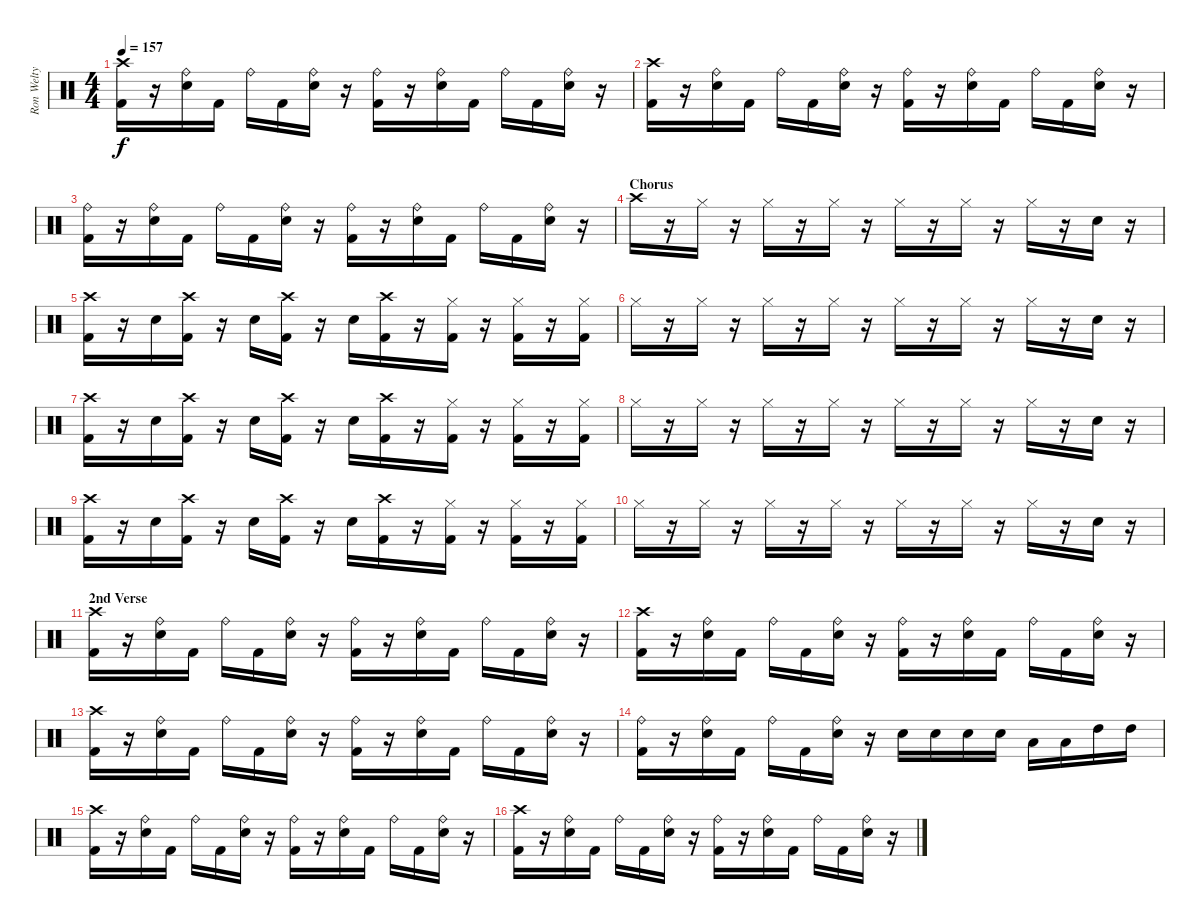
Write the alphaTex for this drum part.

\track ("Ron Welty - Drums" "Ron Welty ") {instrument percussion}
\staff {score}
\articulation defaults
\ts (4 4)
\tempo 157
\clef neutral
\ks c
("Crash high (hit)" "Kick (hit) 2").16{dy f} r.16 ("Ride (bell)" "Snare (hit) 2").16 "Kick (hit) 2".16 "Ride (bell)".16 "Kick (hit) 2".16 ("Ride (bell)" "Snare (hit) 2").16 r.16 ("Ride (bell)" "Kick (hit) 2").16 r.16 ("Ride (bell)" "Snare (hit) 2").16 "Kick (hit) 2".16 "Ride (bell)".16 "Kick (hit) 2".16 ("Ride (bell)" "Snare (hit) 2").16 r.16 |
("Crash high (hit)" "Kick (hit) 2").16 r.16 ("Ride (bell)" "Snare (hit) 2").16 "Kick (hit) 2".16 "Ride (bell)".16 "Kick (hit) 2".16 ("Ride (bell)" "Snare (hit) 2").16 r.16 ("Ride (bell)" "Kick (hit) 2").16 r.16 ("Ride (bell)" "Snare (hit) 2").16 "Kick (hit) 2".16 "Ride (bell)".16 "Kick (hit) 2".16 ("Ride (bell)" "Snare (hit) 2").16 r.16 |
("Ride (bell)" "Kick (hit) 2").16 r.16 ("Ride (bell)" "Snare (hit) 2").16 "Kick (hit) 2".16 "Ride (bell)".16 "Kick (hit) 2".16 ("Ride (bell)" "Snare (hit) 2").16 r.16 ("Ride (bell)" "Kick (hit) 2").16 r.16 ("Ride (bell)" "Snare (hit) 2").16 "Kick (hit) 2".16 "Ride (bell)".16 "Kick (hit) 2".16 ("Ride (bell)" "Snare (hit) 2").16 r.16 |
\section ("" "Chorus")
"Crash high (hit)".16 r.16 "Hi-Hat (closed)".16 r.16 "Hi-Hat (closed)".16 r.16 "Hi-Hat (closed)".16 r.16 "Hi-Hat (closed)".16 r.16 "Hi-Hat (closed)".16 r.16 "Hi-Hat (closed)".16 r.16 "Snare (hit) 2".16 r.16 |
("Crash high (hit)" "Kick (hit) 2").16 r.16 "Snare (hit) 2".16 ("Crash high (hit)" "Kick (hit) 2").16 r.16 "Snare (hit) 2".16 ("Crash high (hit)" "Kick (hit) 2").16 r.16 "Snare (hit) 2".16 ("Crash high (hit)" "Kick (hit) 2").16 r.16 ("Hi-Hat (closed)" "Kick (hit) 2").16 r.16 ("Hi-Hat (closed)" "Kick (hit) 2").16 r.16 ("Hi-Hat (closed)" "Kick (hit) 2").16 |
"Hi-Hat (closed)".16 r.16 "Hi-Hat (closed)".16 r.16 "Hi-Hat (closed)".16 r.16 "Hi-Hat (closed)".16 r.16 "Hi-Hat (closed)".16 r.16 "Hi-Hat (closed)".16 r.16 "Hi-Hat (closed)".16 r.16 "Snare (hit) 2".16 r.16 |
("Crash high (hit)" "Kick (hit) 2").16 r.16 "Snare (hit) 2".16 ("Crash high (hit)" "Kick (hit) 2").16 r.16 "Snare (hit) 2".16 ("Crash high (hit)" "Kick (hit) 2").16 r.16 "Snare (hit) 2".16 ("Crash high (hit)" "Kick (hit) 2").16 r.16 ("Hi-Hat (closed)" "Kick (hit) 2").16 r.16 ("Hi-Hat (closed)" "Kick (hit) 2").16 r.16 ("Hi-Hat (closed)" "Kick (hit) 2").16 |
"Hi-Hat (closed)".16 r.16 "Hi-Hat (closed)".16 r.16 "Hi-Hat (closed)".16 r.16 "Hi-Hat (closed)".16 r.16 "Hi-Hat (closed)".16 r.16 "Hi-Hat (closed)".16 r.16 "Hi-Hat (closed)".16 r.16 "Snare (hit) 2".16 r.16 |
("Crash high (hit)" "Kick (hit) 2").16 r.16 "Snare (hit) 2".16 ("Crash high (hit)" "Kick (hit) 2").16 r.16 "Snare (hit) 2".16 ("Crash high (hit)" "Kick (hit) 2").16 r.16 "Snare (hit) 2".16 ("Crash high (hit)" "Kick (hit) 2").16 r.16 ("Hi-Hat (closed)" "Kick (hit) 2").16 r.16 ("Hi-Hat (closed)" "Kick (hit) 2").16 r.16 ("Hi-Hat (closed)" "Kick (hit) 2").16 |
"Hi-Hat (closed)".16 r.16 "Hi-Hat (closed)".16 r.16 "Hi-Hat (closed)".16 r.16 "Hi-Hat (closed)".16 r.16 "Hi-Hat (closed)".16 r.16 "Hi-Hat (closed)".16 r.16 "Hi-Hat (closed)".16 r.16 "Snare (hit) 2".16 r.16 |
\section ("" "2nd Verse")
("Crash high (hit)" "Kick (hit) 2").16 r.16 ("Ride (bell)" "Snare (hit) 2").16 "Kick (hit) 2".16 "Ride (bell)".16 "Kick (hit) 2".16 ("Ride (bell)" "Snare (hit) 2").16 r.16 ("Ride (bell)" "Kick (hit) 2").16 r.16 ("Ride (bell)" "Snare (hit) 2").16 "Kick (hit) 2".16 "Ride (bell)".16 "Kick (hit) 2".16 ("Ride (bell)" "Snare (hit) 2").16 r.16 |
("Crash high (hit)" "Kick (hit) 2").16 r.16 ("Ride (bell)" "Snare (hit) 2").16 "Kick (hit) 2".16 "Ride (bell)".16 "Kick (hit) 2".16 ("Ride (bell)" "Snare (hit) 2").16 r.16 ("Ride (bell)" "Kick (hit) 2").16 r.16 ("Ride (bell)" "Snare (hit) 2").16 "Kick (hit) 2".16 "Ride (bell)".16 "Kick (hit) 2".16 ("Ride (bell)" "Snare (hit) 2").16 r.16 |
("Crash high (hit)" "Kick (hit) 2").16 r.16 ("Ride (bell)" "Snare (hit) 2").16 "Kick (hit) 2".16 "Ride (bell)".16 "Kick (hit) 2".16 ("Ride (bell)" "Snare (hit) 2").16 r.16 ("Ride (bell)" "Kick (hit) 2").16 r.16 ("Ride (bell)" "Snare (hit) 2").16 "Kick (hit) 2".16 "Ride (bell)".16 "Kick (hit) 2".16 ("Ride (bell)" "Snare (hit) 2").16 r.16 |
("Ride (bell)" "Kick (hit) 2").16 r.16 ("Ride (bell)" "Snare (hit) 2").16 "Kick (hit) 2".16 "Ride (bell)".16 "Kick (hit) 2".16 ("Ride (bell)" "Snare (hit) 2").16 r.16 "Snare (hit) 2".16 "Snare (hit) 2".16 "Snare (hit) 2".16 "Snare (hit) 2".16 "Low Tom (hit)".16 "Low Tom (hit)".16 "High Tom (hit)".16 "High Tom (hit)".16 |
("Crash high (hit)" "Kick (hit) 2").16 r.16 ("Ride (bell)" "Snare (hit) 2").16 "Kick (hit) 2".16 "Ride (bell)".16 "Kick (hit) 2".16 ("Ride (bell)" "Snare (hit) 2").16 r.16 ("Ride (bell)" "Kick (hit) 2").16 r.16 ("Ride (bell)" "Snare (hit) 2").16 "Kick (hit) 2".16 "Ride (bell)".16 "Kick (hit) 2".16 ("Ride (bell)" "Snare (hit) 2").16 r.16 |
("Crash high (hit)" "Kick (hit) 2").16 r.16 ("Ride (bell)" "Snare (hit) 2").16 "Kick (hit) 2".16 "Ride (bell)".16 "Kick (hit) 2".16 ("Ride (bell)" "Snare (hit) 2").16 r.16 ("Ride (bell)" "Kick (hit) 2").16 r.16 ("Ride (bell)" "Snare (hit) 2").16 "Kick (hit) 2".16 "Ride (bell)".16 "Kick (hit) 2".16 ("Ride (bell)" "Snare (hit) 2").16 r.16
